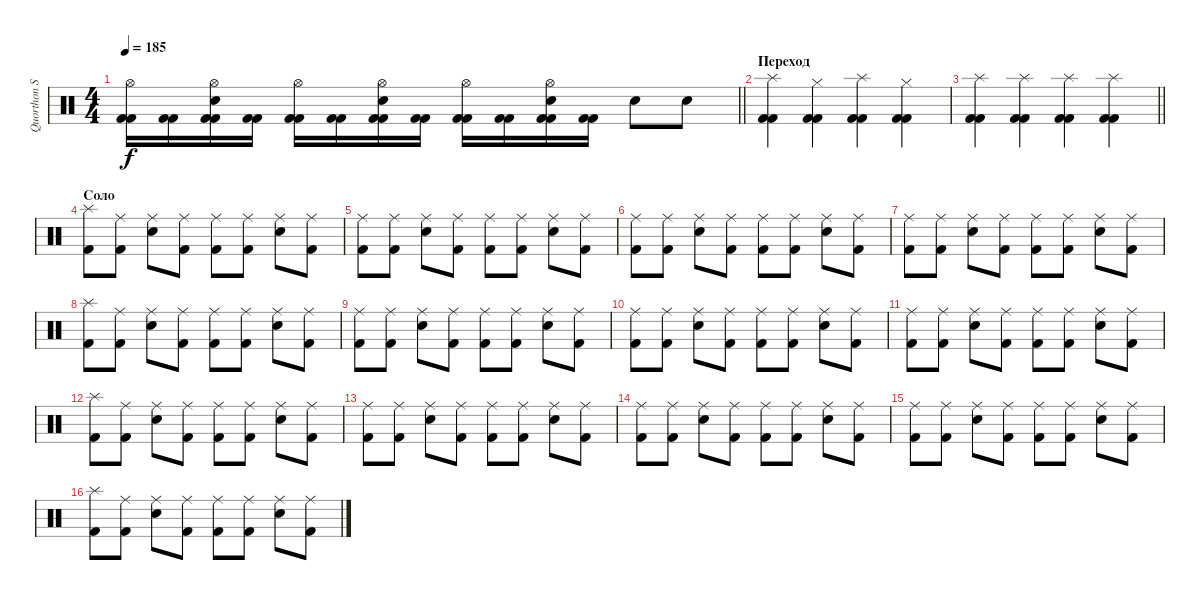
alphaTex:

\track ("Quorthon Seth" "Quorthon S") {instrument percussion}
\staff {score}
\articulation defaults
\ts (4 4)
\tempo 185
\clef neutral
\barLineRight lightlight
\ks c
("Hi-Hat (open)" "Kick (hit) 2" "Kick (hit) 2").16{dy f} ("Kick (hit) 2" "Kick (hit) 2").16 ("Hi-Hat (open)" "Kick (hit) 2" "Kick (hit) 2" "Electric Snare (hit)").16 ("Kick (hit) 2" "Kick (hit) 2").16 ("Hi-Hat (open)" "Kick (hit) 2" "Kick (hit) 2").16 ("Kick (hit) 2" "Kick (hit) 2").16 ("Hi-Hat (open)" "Kick (hit) 2" "Kick (hit) 2" "Electric Snare (hit)").16 ("Kick (hit) 2" "Kick (hit) 2").16 ("Hi-Hat (open)" "Kick (hit) 2" "Kick (hit) 2").16 ("Kick (hit) 2" "Kick (hit) 2").16 ("Hi-Hat (open)" "Kick (hit) 2" "Kick (hit) 2" "Electric Snare (hit)").16 ("Kick (hit) 2" "Kick (hit) 2").16 "Electric Snare (hit)".8 "Electric Snare (hit)".8 |
\section ("" "Переход")
("Splash (hit)" "Kick (hit) 2" "Kick (hit) 2").4 ("Hi-Hat (closed)" "Kick (hit) 2" "Kick (hit) 2").4 ("Splash (hit)" "Kick (hit) 2" "Kick (hit) 2").4 ("Hi-Hat (closed)" "Kick (hit) 2" "Kick (hit) 2").4 |
\barLineRight lightlight
("Splash (hit)" "Kick (hit) 2" "Kick (hit) 2").4 ("Splash (hit)" "Kick (hit) 2" "Kick (hit) 2").4 ("Splash (hit)" "Kick (hit) 2" "Kick (hit) 2").4 ("Splash (hit)" "Kick (hit) 2" "Kick (hit) 2").4 |
\section ("" "Соло")
("Splash (hit)" "Kick (hit) 2").8 ("Ride (middle)" "Kick (hit) 2").8 ("Ride (middle)" "Electric Snare (hit)").8 ("Ride (middle)" "Kick (hit) 2").8 ("Ride (middle)" "Kick (hit) 2").8 ("Ride (middle)" "Kick (hit) 2").8 ("Ride (middle)" "Electric Snare (hit)").8 ("Ride (middle)" "Kick (hit) 2").8 |
("Ride (middle)" "Kick (hit) 2").8 ("Ride (middle)" "Kick (hit) 2").8 ("Ride (middle)" "Electric Snare (hit)").8 ("Ride (middle)" "Kick (hit) 2").8 ("Ride (middle)" "Kick (hit) 2").8 ("Ride (middle)" "Kick (hit) 2").8 ("Ride (middle)" "Electric Snare (hit)").8 ("Ride (middle)" "Kick (hit) 2").8 |
("Ride (middle)" "Kick (hit) 2").8 ("Ride (middle)" "Kick (hit) 2").8 ("Ride (middle)" "Electric Snare (hit)").8 ("Ride (middle)" "Kick (hit) 2").8 ("Ride (middle)" "Kick (hit) 2").8 ("Ride (middle)" "Kick (hit) 2").8 ("Ride (middle)" "Electric Snare (hit)").8 ("Ride (middle)" "Kick (hit) 2").8 |
("Ride (middle)" "Kick (hit) 2").8 ("Ride (middle)" "Kick (hit) 2").8 ("Ride (middle)" "Electric Snare (hit)").8 ("Ride (middle)" "Kick (hit) 2").8 ("Ride (middle)" "Kick (hit) 2").8 ("Ride (middle)" "Kick (hit) 2").8 ("Ride (middle)" "Electric Snare (hit)").8 ("Ride (middle)" "Kick (hit) 2").8 |
("Splash (hit)" "Kick (hit) 2").8 ("Ride (middle)" "Kick (hit) 2").8 ("Ride (middle)" "Electric Snare (hit)").8 ("Ride (middle)" "Kick (hit) 2").8 ("Ride (middle)" "Kick (hit) 2").8 ("Ride (middle)" "Kick (hit) 2").8 ("Ride (middle)" "Electric Snare (hit)").8 ("Ride (middle)" "Kick (hit) 2").8 |
("Ride (middle)" "Kick (hit) 2").8 ("Ride (middle)" "Kick (hit) 2").8 ("Ride (middle)" "Electric Snare (hit)").8 ("Ride (middle)" "Kick (hit) 2").8 ("Ride (middle)" "Kick (hit) 2").8 ("Ride (middle)" "Kick (hit) 2").8 ("Ride (middle)" "Electric Snare (hit)").8 ("Ride (middle)" "Kick (hit) 2").8 |
("Ride (middle)" "Kick (hit) 2").8 ("Ride (middle)" "Kick (hit) 2").8 ("Ride (middle)" "Electric Snare (hit)").8 ("Ride (middle)" "Kick (hit) 2").8 ("Ride (middle)" "Kick (hit) 2").8 ("Ride (middle)" "Kick (hit) 2").8 ("Ride (middle)" "Electric Snare (hit)").8 ("Ride (middle)" "Kick (hit) 2").8 |
("Ride (middle)" "Kick (hit) 2").8 ("Ride (middle)" "Kick (hit) 2").8 ("Ride (middle)" "Electric Snare (hit)").8 ("Ride (middle)" "Kick (hit) 2").8 ("Ride (middle)" "Kick (hit) 2").8 ("Ride (middle)" "Kick (hit) 2").8 ("Ride (middle)" "Electric Snare (hit)").8 ("Ride (middle)" "Kick (hit) 2").8 |
("Splash (hit)" "Kick (hit) 2").8 ("Ride (middle)" "Kick (hit) 2").8 ("Ride (middle)" "Electric Snare (hit)").8 ("Ride (middle)" "Kick (hit) 2").8 ("Ride (middle)" "Kick (hit) 2").8 ("Ride (middle)" "Kick (hit) 2").8 ("Ride (middle)" "Electric Snare (hit)").8 ("Ride (middle)" "Kick (hit) 2").8 |
("Ride (middle)" "Kick (hit) 2").8 ("Ride (middle)" "Kick (hit) 2").8 ("Ride (middle)" "Electric Snare (hit)").8 ("Ride (middle)" "Kick (hit) 2").8 ("Ride (middle)" "Kick (hit) 2").8 ("Ride (middle)" "Kick (hit) 2").8 ("Ride (middle)" "Electric Snare (hit)").8 ("Ride (middle)" "Kick (hit) 2").8 |
("Ride (middle)" "Kick (hit) 2").8 ("Ride (middle)" "Kick (hit) 2").8 ("Ride (middle)" "Electric Snare (hit)").8 ("Ride (middle)" "Kick (hit) 2").8 ("Ride (middle)" "Kick (hit) 2").8 ("Ride (middle)" "Kick (hit) 2").8 ("Ride (middle)" "Electric Snare (hit)").8 ("Ride (middle)" "Kick (hit) 2").8 |
("Ride (middle)" "Kick (hit) 2").8 ("Ride (middle)" "Kick (hit) 2").8 ("Ride (middle)" "Electric Snare (hit)").8 ("Ride (middle)" "Kick (hit) 2").8 ("Ride (middle)" "Kick (hit) 2").8 ("Ride (middle)" "Kick (hit) 2").8 ("Ride (middle)" "Electric Snare (hit)").8 ("Ride (middle)" "Kick (hit) 2").8 |
("Splash (hit)" "Kick (hit) 2").8 ("Ride (middle)" "Kick (hit) 2").8 ("Ride (middle)" "Electric Snare (hit)").8 ("Ride (middle)" "Kick (hit) 2").8 ("Ride (middle)" "Kick (hit) 2").8 ("Ride (middle)" "Kick (hit) 2").8 ("Ride (middle)" "Electric Snare (hit)").8 ("Ride (middle)" "Kick (hit) 2").8
